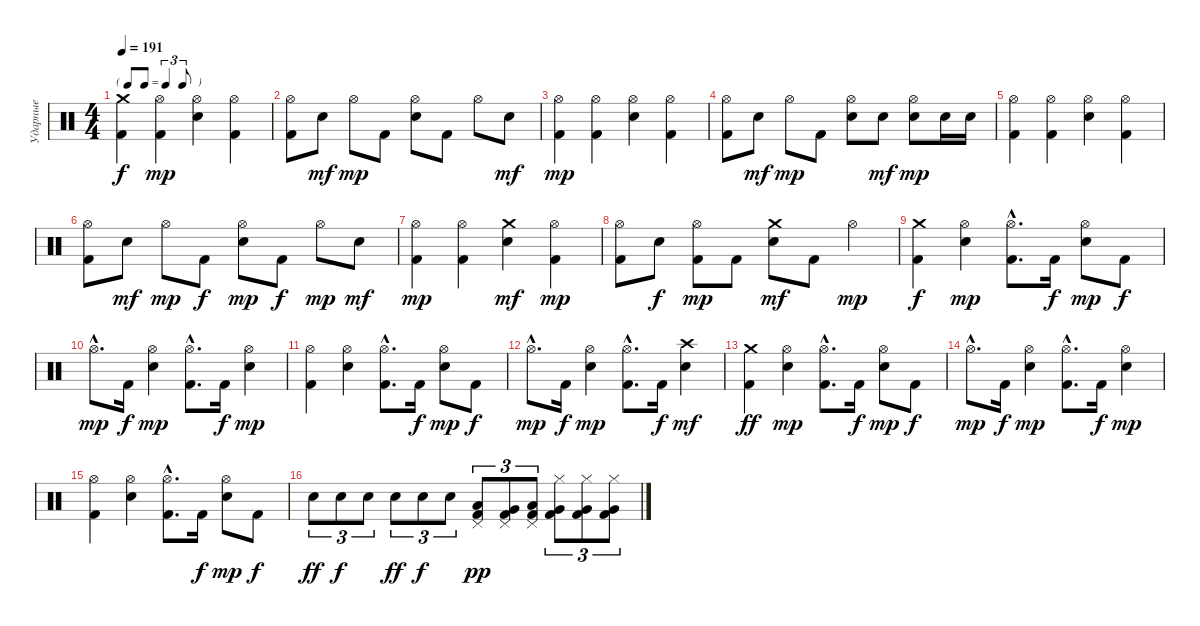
\track ("Ударные" "Ударные") {instrument percussion}
\staff {score}
\articulation defaults
\ts (4 4)
\tf triplet8th
\tempo 191
\clef neutral
\ks c
("Crash medium (hit)" "Kick (hit) 2").4{dy f} ("Kick (hit) 2" "Hi-Hat (open)").4{dy mp} ("Snare (hit) 2" "Hi-Hat (open)").4 ("Kick (hit) 2" "Hi-Hat (open)").4 |
("Kick (hit) 2" "Hi-Hat (open)").8 "Snare (hit) 2".8{dy mf} "Hi-Hat (open)".8{dy mp} "Kick (hit) 2".8 ("Snare (hit) 2" "Hi-Hat (open)").8 "Kick (hit) 2".8 "Hi-Hat (open)".8 "Snare (hit) 2".8{dy mf} |
("Kick (hit) 2" "Hi-Hat (open)").4{dy mp} ("Kick (hit) 2" "Hi-Hat (open)").4 ("Snare (hit) 2" "Hi-Hat (open)").4 ("Kick (hit) 2" "Hi-Hat (open)").4 |
("Kick (hit) 2" "Hi-Hat (open)").8 "Snare (hit) 2".8{dy mf} "Hi-Hat (open)".8{dy mp} "Kick (hit) 2".8 ("Snare (hit) 2" "Hi-Hat (open)").8 "Snare (hit) 2".8{dy mf} ("Snare (hit) 2" "Hi-Hat (open)").8{dy mp} "Snare (hit) 2".16 "Snare (hit) 2".16 |
("Kick (hit) 2" "Hi-Hat (open)").4 ("Kick (hit) 2" "Hi-Hat (open)").4 ("Snare (hit) 2" "Hi-Hat (open)").4 ("Kick (hit) 2" "Hi-Hat (open)").4 |
("Kick (hit) 2" "Hi-Hat (open)").8 "Snare (hit) 2".8{dy mf} "Hi-Hat (open)".8{dy mp} "Kick (hit) 2".8{dy f} ("Snare (hit) 2" "Hi-Hat (open)").8{dy mp} "Kick (hit) 2".8{dy f} "Hi-Hat (open)".8{dy mp} "Snare (hit) 2".8{dy mf} |
("Kick (hit) 2" "Hi-Hat (open)").4{dy mp} ("Kick (hit) 2" "Hi-Hat (open)").4 ("Crash medium (hit)" "Snare (hit) 2").4{dy mf} ("Kick (hit) 2" "Hi-Hat (open)").4{dy mp} |
("Kick (hit) 2" "Hi-Hat (open)").8 "Snare (hit) 2".8{dy f} ("Kick (hit) 2" "Hi-Hat (open)").8{dy mp} "Kick (hit) 2".8 ("Crash medium (hit)" "Snare (hit) 2").8{dy mf} "Kick (hit) 2".8 "Hi-Hat (open)".4{dy mp} |
("Crash medium (hit)" "Kick (hit) 2").4{dy f} ("Snare (hit) 2" "Hi-Hat (open)").4{dy mp} ("Kick (hit) 2"{hac} "Hi-Hat (open)"{hac}).8{d} "Kick (hit) 2".16{dy f} ("Snare (hit) 2" "Hi-Hat (open)").8{dy mp} "Kick (hit) 2".8{dy f} |
"Hi-Hat (open)"{hac}.8{d dy mp} "Kick (hit) 2".16{dy f} ("Snare (hit) 2" "Hi-Hat (open)").4{dy mp} ("Kick (hit) 2"{hac} "Hi-Hat (open)"{hac}).8{d} "Kick (hit) 2".16{dy f} ("Snare (hit) 2" "Hi-Hat (open)").4{dy mp} |
("Kick (hit) 2" "Hi-Hat (open)").4 ("Snare (hit) 2" "Hi-Hat (open)").4 ("Kick (hit) 2"{hac} "Hi-Hat (open)"{hac}).8{d} "Kick (hit) 2".16{dy f} ("Snare (hit) 2" "Hi-Hat (open)").8{dy mp} "Kick (hit) 2".8{dy f} |
"Hi-Hat (open)"{hac}.8{d dy mp} "Kick (hit) 2".16{dy f} ("Snare (hit) 2" "Hi-Hat (open)").4{dy mp} ("Kick (hit) 2"{hac} "Hi-Hat (open)"{hac}).8{d} "Kick (hit) 2".16{dy f} ("Crash high (hit)" "Snare (hit) 2").4{dy mf} |
("Crash medium (hit)" "Kick (hit) 2").4{dy ff} ("Snare (hit) 2" "Hi-Hat (open)").4{dy mp} ("Kick (hit) 2"{hac} "Hi-Hat (open)"{hac}).8{d} "Kick (hit) 2".16{dy f} ("Snare (hit) 2" "Hi-Hat (open)").8{dy mp} "Kick (hit) 2".8{dy f} |
"Hi-Hat (open)"{hac}.8{d dy mp} "Kick (hit) 2".16{dy f} ("Snare (hit) 2" "Hi-Hat (open)").4{dy mp} ("Kick (hit) 2"{hac} "Hi-Hat (open)"{hac}).8{d} "Kick (hit) 2".16{dy f} ("Snare (hit) 2" "Hi-Hat (open)").4{dy mp} |
("Kick (hit) 2" "Hi-Hat (open)").4 ("Snare (hit) 2" "Hi-Hat (open)").4 ("Kick (hit) 2"{hac} "Hi-Hat (open)"{hac}).8{d} "Kick (hit) 2".16{dy f} ("Snare (hit) 2" "Hi-Hat (open)").8{dy mp} "Kick (hit) 2".8{dy f} |
"Snare (hit) 2".8{tu (3 2) dy ff} "Snare (hit) 2".8{tu (3 2) dy f} "Snare (hit) 2".8{tu (3 2)} "Snare (hit) 2".8{tu (3 2) dy ff} "Snare (hit) 2".8{tu (3 2) dy f} "Snare (hit) 2".8{tu (3 2)} ("Kick (hit) 2" "Low Tom (hit)" "Pedal Hi-Hat (hit)").8{tu (3 2) dy pp} ("Kick (hit) 2" "Very Low Tom (hit)" "Pedal Hi-Hat (hit)").8{tu (3 2)} ("Kick (hit) 2" "Low Tom (hit)" "Pedal Hi-Hat (hit)").8{tu (3 2)} ("Kick (hit) 2" "Very Low Tom (hit)" "Hi-Hat (closed)").8{tu (3 2)} ("Kick (hit) 2" "Very Low Tom (hit)" "Hi-Hat (closed)").8{tu (3 2)} ("Kick (hit) 2" "Very Low Tom (hit)" "Hi-Hat (closed)").8{tu (3 2)}
